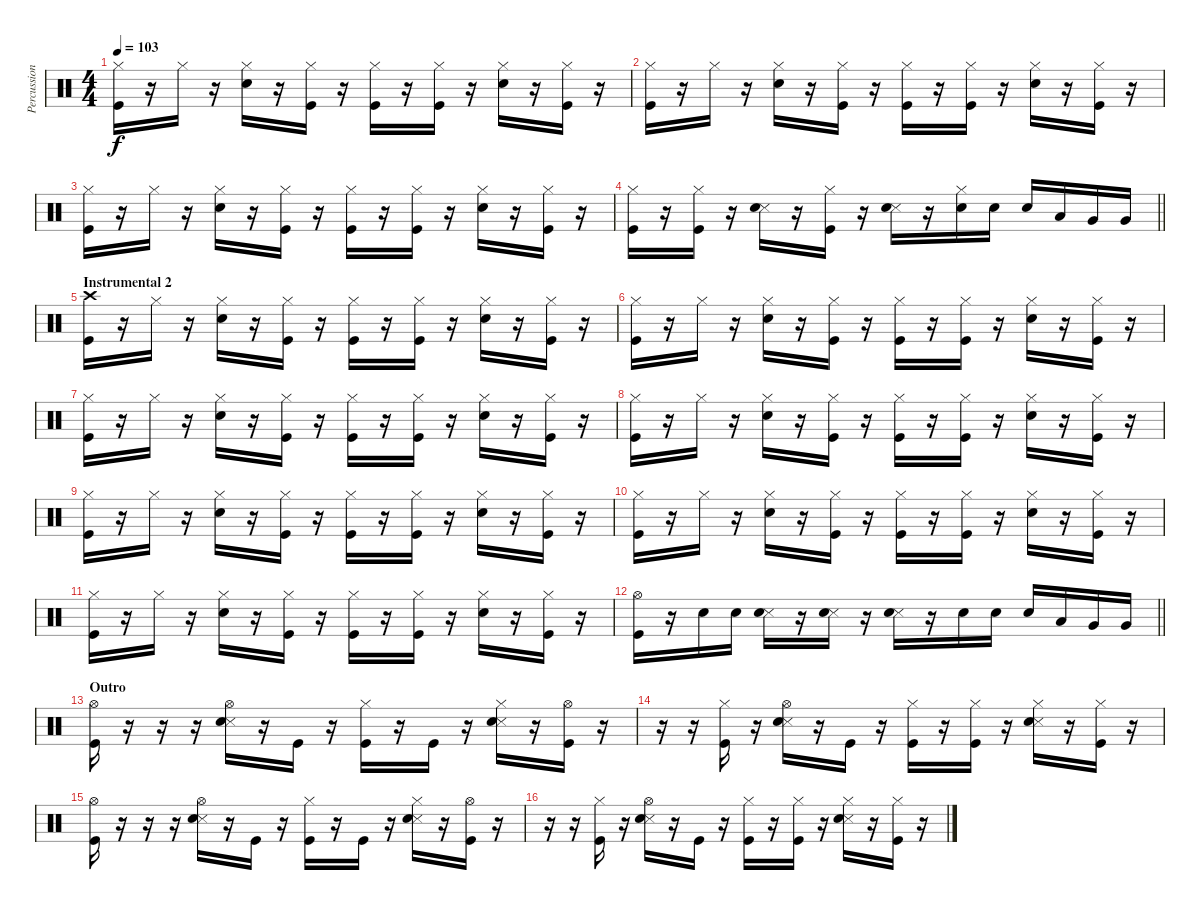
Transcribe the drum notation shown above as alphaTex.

\track ("Percussion" "Percussion") {instrument percussion}
\staff {score}
\articulation defaults
\ts (4 4)
\tempo 103
\clef neutral
\ks c
("Hi-Hat (closed)" "Kick (hit)").16{dy f} r.16 "Hi-Hat (closed)".16 r.16 ("Hi-Hat (closed)" "Snare (hit) 2").16 r.16 ("Hi-Hat (closed)" "Kick (hit)").16 r.16 ("Hi-Hat (closed)" "Kick (hit)").16 r.16 ("Hi-Hat (closed)" "Kick (hit)").16 r.16 ("Hi-Hat (closed)" "Snare (hit) 2").16 r.16 ("Hi-Hat (closed)" "Kick (hit)").16 r.16 |
("Hi-Hat (closed)" "Kick (hit)").16 r.16 "Hi-Hat (closed)".16 r.16 ("Hi-Hat (closed)" "Snare (hit) 2").16 r.16 ("Hi-Hat (closed)" "Kick (hit)").16 r.16 ("Hi-Hat (closed)" "Kick (hit)").16 r.16 ("Hi-Hat (closed)" "Kick (hit)").16 r.16 ("Hi-Hat (closed)" "Snare (hit) 2").16 r.16 ("Hi-Hat (closed)" "Kick (hit)").16 r.16 |
("Hi-Hat (closed)" "Kick (hit)").16 r.16 "Hi-Hat (closed)".16 r.16 ("Hi-Hat (closed)" "Snare (hit) 2").16 r.16 ("Hi-Hat (closed)" "Kick (hit)").16 r.16 ("Hi-Hat (closed)" "Kick (hit)").16 r.16 ("Hi-Hat (closed)" "Kick (hit)").16 r.16 ("Hi-Hat (closed)" "Snare (hit) 2").16 r.16 ("Hi-Hat (closed)" "Kick (hit)").16 r.16 |
\barLineRight lightlight
("Hi-Hat (closed)" "Kick (hit)").16 r.16 ("Hi-Hat (closed)" "Kick (hit)").16 r.16 ("Snare (side stick) 3" "Snare (hit) 2").16 r.16 ("Hi-Hat (closed)" "Kick (hit)").16 r.16 ("Snare (side stick) 3" "Snare (hit) 2").16 r.16 ("Hi-Hat (closed)" "Snare (hit) 2").16 "Snare (hit) 2".16 "Snare (hit) 2".16 "Low Tom (hit)".16 "Very Low Tom (hit)".16 "Very Low Tom (hit)".16 |
\section ("" "Instrumental 2")
("Crash high (hit)" "Kick (hit)").16 r.16 "Hi-Hat (closed)".16 r.16 ("Hi-Hat (closed)" "Snare (hit) 2").16 r.16 ("Hi-Hat (closed)" "Kick (hit)").16 r.16 ("Hi-Hat (closed)" "Kick (hit)").16 r.16 ("Hi-Hat (closed)" "Kick (hit)").16 r.16 ("Hi-Hat (closed)" "Snare (hit) 2").16 r.16 ("Hi-Hat (closed)" "Kick (hit)").16 r.16 |
("Hi-Hat (closed)" "Kick (hit)").16 r.16 "Hi-Hat (closed)".16 r.16 ("Hi-Hat (closed)" "Snare (hit) 2").16 r.16 ("Hi-Hat (closed)" "Kick (hit)").16 r.16 ("Hi-Hat (closed)" "Kick (hit)").16 r.16 ("Hi-Hat (closed)" "Kick (hit)").16 r.16 ("Hi-Hat (closed)" "Snare (hit) 2").16 r.16 ("Hi-Hat (closed)" "Kick (hit)").16 r.16 |
("Hi-Hat (closed)" "Kick (hit)").16 r.16 "Hi-Hat (closed)".16 r.16 ("Hi-Hat (closed)" "Snare (hit) 2").16 r.16 ("Hi-Hat (closed)" "Kick (hit)").16 r.16 ("Hi-Hat (closed)" "Kick (hit)").16 r.16 ("Hi-Hat (closed)" "Kick (hit)").16 r.16 ("Hi-Hat (closed)" "Snare (hit) 2").16 r.16 ("Hi-Hat (closed)" "Kick (hit)").16 r.16 |
("Hi-Hat (closed)" "Kick (hit)").16 r.16 "Hi-Hat (closed)".16 r.16 ("Hi-Hat (closed)" "Snare (hit) 2").16 r.16 ("Hi-Hat (closed)" "Kick (hit)").16 r.16 ("Hi-Hat (closed)" "Kick (hit)").16 r.16 ("Hi-Hat (closed)" "Kick (hit)").16 r.16 ("Hi-Hat (closed)" "Snare (hit) 2").16 r.16 ("Hi-Hat (closed)" "Kick (hit)").16 r.16 |
("Hi-Hat (closed)" "Kick (hit)").16 r.16 "Hi-Hat (closed)".16 r.16 ("Hi-Hat (closed)" "Snare (hit) 2").16 r.16 ("Hi-Hat (closed)" "Kick (hit)").16 r.16 ("Hi-Hat (closed)" "Kick (hit)").16 r.16 ("Hi-Hat (closed)" "Kick (hit)").16 r.16 ("Hi-Hat (closed)" "Snare (hit) 2").16 r.16 ("Hi-Hat (closed)" "Kick (hit)").16 r.16 |
("Hi-Hat (closed)" "Kick (hit)").16 r.16 "Hi-Hat (closed)".16 r.16 ("Hi-Hat (closed)" "Snare (hit) 2").16 r.16 ("Hi-Hat (closed)" "Kick (hit)").16 r.16 ("Hi-Hat (closed)" "Kick (hit)").16 r.16 ("Hi-Hat (closed)" "Kick (hit)").16 r.16 ("Hi-Hat (closed)" "Snare (hit) 2").16 r.16 ("Hi-Hat (closed)" "Kick (hit)").16 r.16 |
("Hi-Hat (closed)" "Kick (hit)").16 r.16 "Hi-Hat (closed)".16 r.16 ("Hi-Hat (closed)" "Snare (hit) 2").16 r.16 ("Hi-Hat (closed)" "Kick (hit)").16 r.16 ("Hi-Hat (closed)" "Kick (hit)").16 r.16 ("Hi-Hat (closed)" "Kick (hit)").16 r.16 ("Hi-Hat (closed)" "Snare (hit) 2").16 r.16 ("Hi-Hat (closed)" "Kick (hit)").16 r.16 |
\barLineRight lightlight
("Hi-Hat (open)" "Kick (hit)").16 r.16 "Snare (hit) 2".16 "Snare (hit) 2".16 ("Snare (side stick) 3" "Snare (hit) 2").16 r.16 ("Snare (side stick) 3" "Snare (hit) 2").16 r.16 ("Snare (side stick) 3" "Snare (hit) 2").16 r.16 "Snare (hit) 2".16 "Snare (hit) 2".16 "Snare (hit) 2".16 "Low Tom (hit)".16 "Very Low Tom (hit)".16 "Very Low Tom (hit)".16 |
\section ("" "Outro")
("Hi-Hat (open)" "Kick (hit)").16 r.16 r.16 r.16 ("Hi-Hat (open)" "Snare (side stick) 3" "Snare (hit) 2").16 r.16 "Kick (hit)".16 r.16 ("Hi-Hat (closed)" "Kick (hit)").16 r.16 "Kick (hit)".16 r.16 ("Hi-Hat (closed)" "Snare (side stick) 3" "Snare (hit) 2").16 r.16 ("Hi-Hat (open)" "Kick (hit)").16 r.16 |
r.16 r.16 ("Hi-Hat (closed)" "Kick (hit)").16 r.16 ("Hi-Hat (open)" "Snare (side stick) 3" "Snare (hit) 2").16 r.16 "Kick (hit)".16 r.16 ("Hi-Hat (closed)" "Kick (hit)").16 r.16 ("Hi-Hat (closed)" "Kick (hit)").16 r.16 ("Hi-Hat (closed)" "Snare (side stick) 3" "Snare (hit) 2").16 r.16 ("Hi-Hat (closed)" "Kick (hit)").16 r.16 |
("Hi-Hat (open)" "Kick (hit)").16 r.16 r.16 r.16 ("Hi-Hat (open)" "Snare (side stick) 3" "Snare (hit) 2").16 r.16 "Kick (hit)".16 r.16 ("Hi-Hat (closed)" "Kick (hit)").16 r.16 "Kick (hit)".16 r.16 ("Hi-Hat (closed)" "Snare (side stick) 3" "Snare (hit) 2").16 r.16 ("Hi-Hat (open)" "Kick (hit)").16 r.16 |
r.16 r.16 ("Hi-Hat (closed)" "Kick (hit)").16 r.16 ("Hi-Hat (open)" "Snare (side stick) 3" "Snare (hit) 2").16 r.16 "Kick (hit)".16 r.16 ("Hi-Hat (closed)" "Kick (hit)").16 r.16 ("Hi-Hat (closed)" "Kick (hit)").16 r.16 ("Hi-Hat (closed)" "Snare (side stick) 3" "Snare (hit) 2").16 r.16 ("Hi-Hat (closed)" "Kick (hit)").16 r.16
